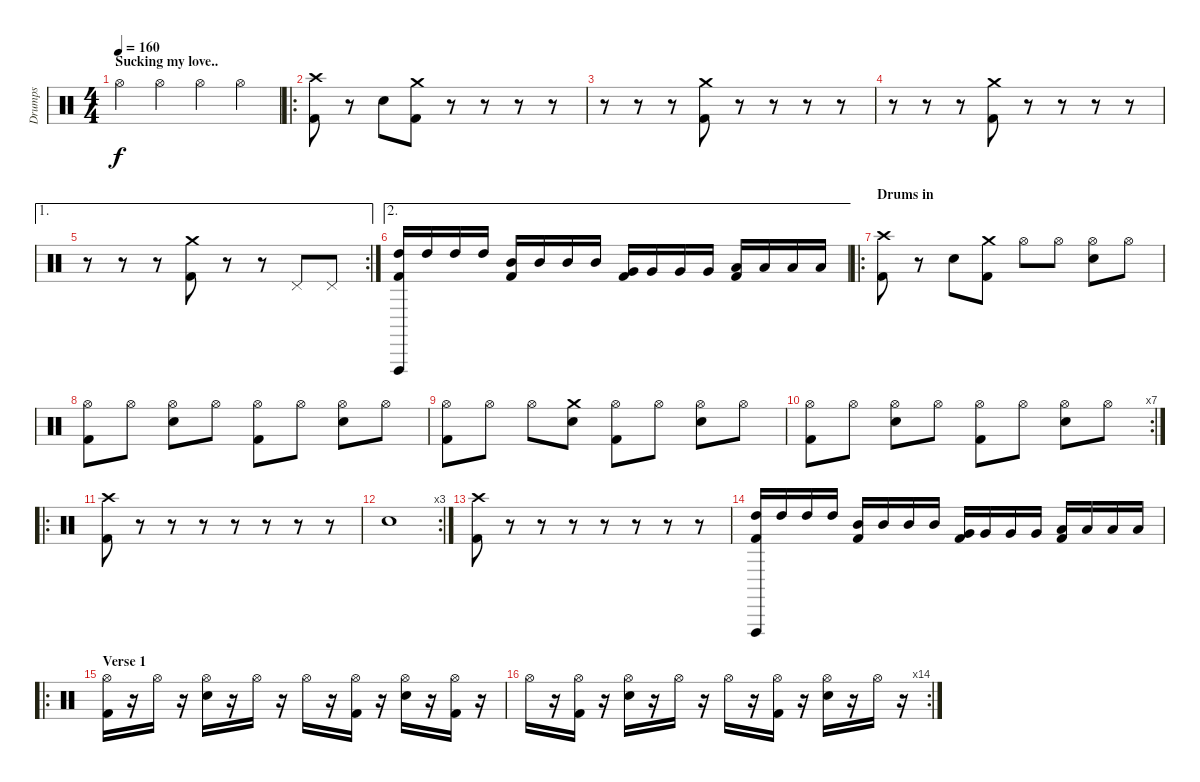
\track ("Drumps" "Drumps") {instrument percussion}
\staff {score}
\articulation defaults
\ts (4 4)
\section ("" "Sucking my love..")
\tempo 160
\clef neutral
\ks c "Hi-Hat (open)".4{dy f} "Hi-Hat (open)".4 "Hi-Hat (open)".4 "Hi-Hat (open)".4
|
\ro
("Crash high (hit)" "Kick (hit) 2").8 r.8 "Electric Snare (hit)".8 ("Crash medium (hit)" "Kick (hit) 2").8 r.8 r.8 r.8 r.8 |
r.8 r.8 r.8 ("Crash medium (hit)" "Kick (hit) 2").8 r.8 r.8 r.8 r.8 |
r.8 r.8 r.8 ("Crash medium (hit)" "Kick (hit) 2").8 r.8 r.8 r.8 r.8 |
\ae 1
\rc 2
r.8 r.8 r.8 ("Crash medium (hit)" "Kick (hit) 2").8 r.8 r.8 "Pedal Hi-Hat (hit)".8 "Pedal Hi-Hat (hit)".8 |
\ae 2
("Vibraslap (hit)" "High Tom (hit)" "Kick (hit) 2").16 "High Tom (hit)".16 "High Tom (hit)".16 "High Tom (hit)".16 ("Mid Tom (hit)" "Kick (hit) 2").16 "Mid Tom (hit)".16 "Mid Tom (hit)".16 "Mid Tom (hit)".16 ("Very Low Tom (hit)" "Kick (hit) 2").16 "Very Low Tom (hit)".16 "Very Low Tom (hit)".16 "Very Low Tom (hit)".16 ("Low Floor Tom (hit)" "Kick (hit) 2").16 "Low Floor Tom (hit)".16 "Low Floor Tom (hit)".16 "Low Floor Tom (hit)".16 |
\ro
\section ("" "Drums in")
("Crash high (hit)" "Kick (hit) 2").8 r.8 "Electric Snare (hit)".8 ("Crash medium (hit)" "Kick (hit) 2").8 "Hi-Hat (open)".8 "Hi-Hat (open)".8 ("Hi-Hat (open)" "Electric Snare (hit)").8 "Hi-Hat (open)".8 |
("Hi-Hat (open)" "Kick (hit) 2").8 "Hi-Hat (open)".8 ("Hi-Hat (open)" "Electric Snare (hit)").8 "Hi-Hat (open)".8 ("Hi-Hat (open)" "Kick (hit) 2").8 "Hi-Hat (open)".8 ("Hi-Hat (open)" "Electric Snare (hit)").8 "Hi-Hat (open)".8 |
("Hi-Hat (open)" "Kick (hit) 2").8 "Hi-Hat (open)".8 "Hi-Hat (open)".8 ("Crash medium (hit)" "Electric Snare (hit)").8 ("Hi-Hat (open)" "Kick (hit) 2").8 "Hi-Hat (open)".8 ("Hi-Hat (open)" "Electric Snare (hit)").8 "Hi-Hat (open)".8 |
\rc 7
("Hi-Hat (open)" "Kick (hit) 2").8 "Hi-Hat (open)".8 ("Hi-Hat (open)" "Electric Snare (hit)").8 "Hi-Hat (open)".8 ("Hi-Hat (open)" "Kick (hit) 2").8 "Hi-Hat (open)".8 ("Hi-Hat (open)" "Electric Snare (hit)").8 "Hi-Hat (open)".8 |
\ro
("Crash high (hit)" "Kick (hit) 2").8 r.8 r.8 r.8 r.8 r.8 r.8 r.8 |
\rc 3 "Snare (hit)".1
|
("Crash high (hit)" "Kick (hit) 2").8 r.8 r.8 r.8 r.8 r.8 r.8 r.8 |
("Vibraslap (hit)" "High Tom (hit)" "Kick (hit) 2").16 "High Tom (hit)".16 "High Tom (hit)".16 "High Tom (hit)".16 ("Mid Tom (hit)" "Kick (hit) 2").16 "Mid Tom (hit)".16 "Mid Tom (hit)".16 "Mid Tom (hit)".16 ("Very Low Tom (hit)" "Kick (hit) 2").16 "Very Low Tom (hit)".16 "Very Low Tom (hit)".16 "Very Low Tom (hit)".16 ("Low Floor Tom (hit)" "Kick (hit) 2").16 "Low Floor Tom (hit)".16 "Low Floor Tom (hit)".16 "Low Floor Tom (hit)".16 |
\ro
\section ("" "Verse 1")
("Hi-Hat (open)" "Kick (hit) 2").16 r.16 "Hi-Hat (open)".16 r.16 ("Hi-Hat (open)" "Electric Snare (hit)").16 r.16 "Hi-Hat (open)".16 r.16 "Hi-Hat (open)".16 r.16 ("Hi-Hat (open)" "Kick (hit) 2").16 r.16 ("Hi-Hat (open)" "Electric Snare (hit)").16 r.16 ("Hi-Hat (open)" "Kick (hit) 2").16 r.16 |
\rc 14 "Hi-Hat (open)".16
r.16 ("Hi-Hat (open)" "Kick (hit) 2").16 r.16 ("Hi-Hat (open)" "Electric Snare (hit)").16 r.16 "Hi-Hat (open)".16 r.16 "Hi-Hat (open)".16 r.16 ("Hi-Hat (open)" "Kick (hit) 2").16 r.16 ("Hi-Hat (open)" "Electric Snare (hit)").16 r.16 "Hi-Hat (open)".16 r.16
